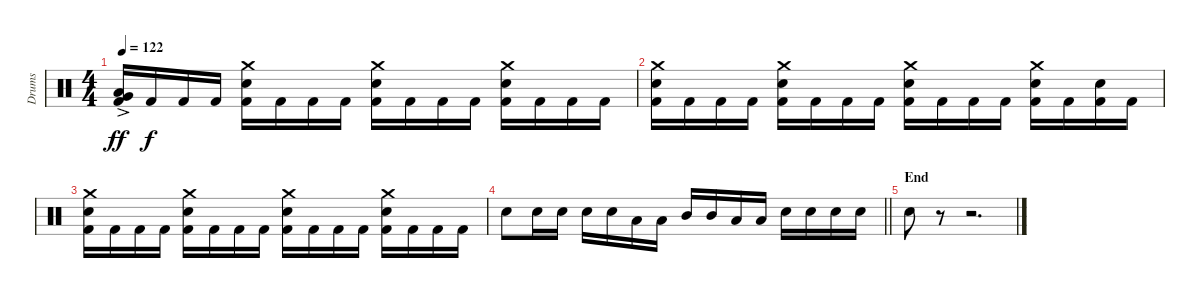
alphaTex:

\track ("Drums" "Drums") {instrument percussion}
\staff {score}
\articulation defaults
\ts (4 4)
\tempo 122
\clef neutral
\ks c
("Kick (hit) 2" "Low Tom (hit)"{ac} "Very Low Tom (hit)").16{dy ff} "Kick (hit) 2".16{dy f} "Kick (hit) 2".16 "Kick (hit) 2".16 ("Kick (hit) 2" "Snare (hit) 2" "Crash medium (hit)").16 "Kick (hit) 2".16 "Kick (hit) 2".16 "Kick (hit) 2".16 ("Kick (hit) 2" "Snare (hit) 2" "Crash medium (hit)").16 "Kick (hit) 2".16 "Kick (hit) 2".16 "Kick (hit) 2".16 ("Kick (hit) 2" "Snare (hit) 2" "Crash medium (hit)").16 "Kick (hit) 2".16 "Kick (hit) 2".16 "Kick (hit) 2".16 |
("Kick (hit) 2" "Snare (hit) 2" "Crash medium (hit)").16 "Kick (hit) 2".16 "Kick (hit) 2".16 "Kick (hit) 2".16 ("Kick (hit) 2" "Snare (hit) 2" "Crash medium (hit)").16 "Kick (hit) 2".16 "Kick (hit) 2".16 "Kick (hit) 2".16 ("Kick (hit) 2" "Snare (hit) 2" "Crash medium (hit)").16 "Kick (hit) 2".16 "Kick (hit) 2".16 "Kick (hit) 2".16 ("Kick (hit) 2" "Snare (hit) 2" "Crash medium (hit)").16 "Kick (hit) 2".16 ("Kick (hit) 2" "Snare (hit) 2").16 "Kick (hit) 2".16 |
("Kick (hit) 2" "Snare (hit) 2" "Crash medium (hit)").16 "Kick (hit) 2".16 "Kick (hit) 2".16 "Kick (hit) 2".16 ("Kick (hit) 2" "Snare (hit) 2" "Crash medium (hit)").16 "Kick (hit) 2".16 "Kick (hit) 2".16 "Kick (hit) 2".16 ("Kick (hit) 2" "Snare (hit) 2" "Crash medium (hit)").16 "Kick (hit) 2".16 "Kick (hit) 2".16 "Kick (hit) 2".16 ("Kick (hit) 2" "Snare (hit) 2" "Crash medium (hit)").16 "Kick (hit) 2".16 "Kick (hit) 2".16 "Kick (hit) 2".16 |
\barLineRight lightlight "Snare (hit) 2".8 "Snare (hit) 2".16 "Snare (hit) 2".16 "Snare (hit) 2".16 "Snare (hit) 2".16 "Low Tom (hit)".16 "Low Tom (hit)".16 "Mid Tom (hit)".16 "Mid Tom (hit)".16 "Low Tom (hit)".16 "Low Tom (hit)".16 "Snare (hit) 2".16 "Snare (hit) 2".16 "Snare (hit) 2".16 "Snare (hit) 2".16
|
\section ("" "End")
"Snare (hit) 2".8 r.8 r.2{d}
